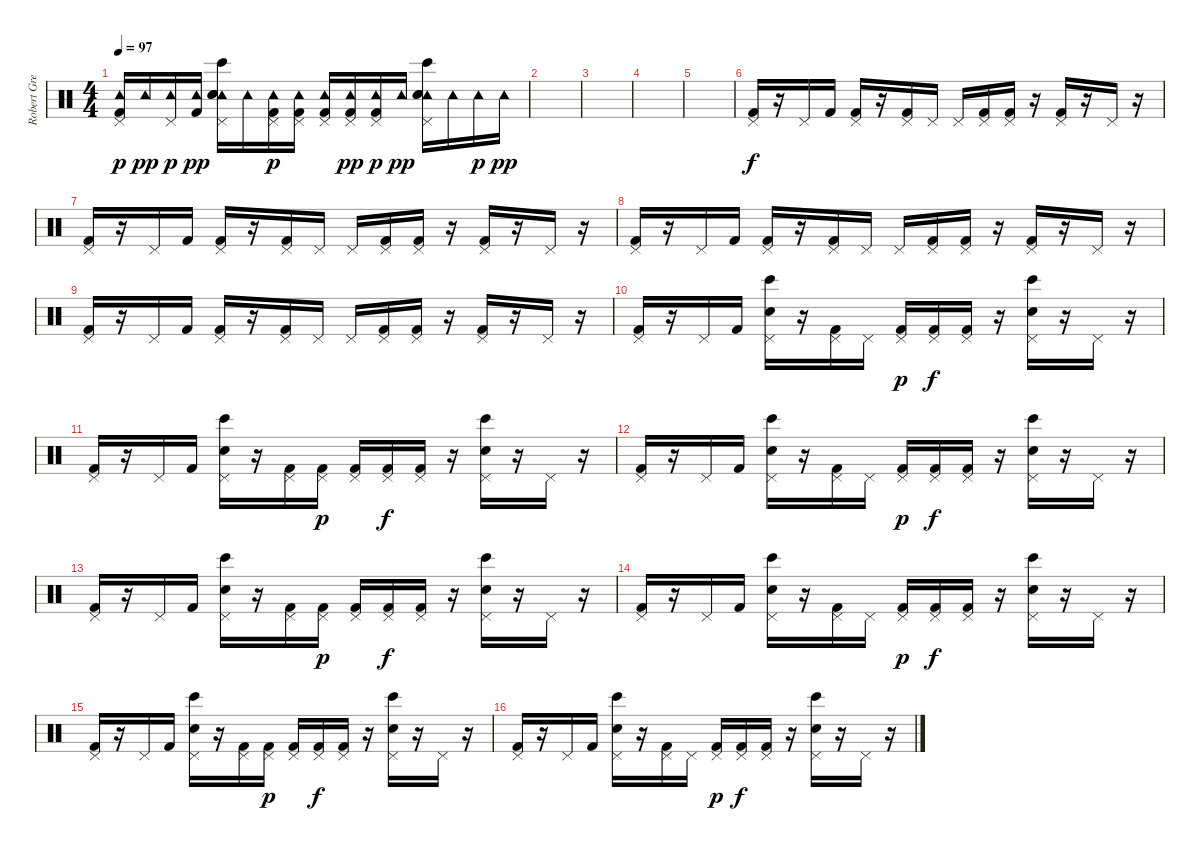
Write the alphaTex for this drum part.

\track ("Robert Gregory Bourdan/'Groop' sound" "Robert Gre") {instrument percussion}
\staff {score}
\articulation defaults
\ts (4 4)
\tempo 97
\clef neutral
\ks c
("Pedal Hi-Hat (hit)" "Tambourine (hit)" "Kick (hit) 2").16{dy p} "Tambourine (hit)".16{dy pp} ("Pedal Hi-Hat (hit)" "Tambourine (hit)").16{dy p} ("Tambourine (hit)" "Kick (hit) 2").16{dy pp} ("Pedal Hi-Hat (hit)" "Tambourine (hit)" "Electric Snare (hit)" "Snare (hit) 2" "Bongo High (hit)").16 "Tambourine (hit)".16 ("Pedal Hi-Hat (hit)" "Tambourine (hit)" "Kick (hit) 2").16{dy p} ("Pedal Hi-Hat (hit)" "Tambourine (hit)" "Kick (hit) 2").16 ("Pedal Hi-Hat (hit)" "Tambourine (hit)" "Kick (hit) 2").16 ("Pedal Hi-Hat (hit)" "Tambourine (hit)" "Kick (hit) 2").16{dy pp} ("Pedal Hi-Hat (hit)" "Tambourine (hit)" "Kick (hit) 2").16{dy p} "Tambourine (hit)".16{dy pp} ("Pedal Hi-Hat (hit)" "Tambourine (hit)" "Electric Snare (hit)" "Snare (hit) 2" "Bongo High (hit)").16 "Tambourine (hit)".16 "Tambourine (hit)".16{dy p} "Tambourine (hit)".16{dy pp} |
|
|
|
|
("Pedal Hi-Hat (hit)" "Kick (hit) 2").16{dy f} r.16 "Pedal Hi-Hat (hit)".16 "Kick (hit) 2".16 ("Pedal Hi-Hat (hit)" "Kick (hit) 2").16 r.16 ("Pedal Hi-Hat (hit)" "Kick (hit) 2").16 "Pedal Hi-Hat (hit)".16 "Pedal Hi-Hat (hit)".16 ("Pedal Hi-Hat (hit)" "Kick (hit) 2").16 ("Pedal Hi-Hat (hit)" "Kick (hit) 2").16 r.16 ("Pedal Hi-Hat (hit)" "Kick (hit) 2").16 r.16 "Pedal Hi-Hat (hit)".16 r.16 |
("Pedal Hi-Hat (hit)" "Kick (hit) 2").16 r.16 "Pedal Hi-Hat (hit)".16 "Kick (hit) 2".16 ("Pedal Hi-Hat (hit)" "Kick (hit) 2").16 r.16 ("Pedal Hi-Hat (hit)" "Kick (hit) 2").16 "Pedal Hi-Hat (hit)".16 "Pedal Hi-Hat (hit)".16 ("Pedal Hi-Hat (hit)" "Kick (hit) 2").16 ("Pedal Hi-Hat (hit)" "Kick (hit) 2").16 r.16 ("Pedal Hi-Hat (hit)" "Kick (hit) 2").16 r.16 "Pedal Hi-Hat (hit)".16 r.16 |
("Pedal Hi-Hat (hit)" "Kick (hit) 2").16 r.16 "Pedal Hi-Hat (hit)".16 "Kick (hit) 2".16 ("Pedal Hi-Hat (hit)" "Kick (hit) 2").16 r.16 ("Pedal Hi-Hat (hit)" "Kick (hit) 2").16 "Pedal Hi-Hat (hit)".16 "Pedal Hi-Hat (hit)".16 ("Pedal Hi-Hat (hit)" "Kick (hit) 2").16 ("Pedal Hi-Hat (hit)" "Kick (hit) 2").16 r.16 ("Pedal Hi-Hat (hit)" "Kick (hit) 2").16 r.16 "Pedal Hi-Hat (hit)".16 r.16 |
("Pedal Hi-Hat (hit)" "Kick (hit) 2").16 r.16 "Pedal Hi-Hat (hit)".16 "Kick (hit) 2".16 ("Pedal Hi-Hat (hit)" "Kick (hit) 2").16 r.16 ("Pedal Hi-Hat (hit)" "Kick (hit) 2").16 "Pedal Hi-Hat (hit)".16 "Pedal Hi-Hat (hit)".16 ("Pedal Hi-Hat (hit)" "Kick (hit) 2").16 ("Pedal Hi-Hat (hit)" "Kick (hit) 2").16 r.16 ("Pedal Hi-Hat (hit)" "Kick (hit) 2").16 r.16 "Pedal Hi-Hat (hit)".16 r.16 |
("Pedal Hi-Hat (hit)" "Kick (hit) 2").16 r.16 "Pedal Hi-Hat (hit)".16 "Kick (hit) 2".16 ("Pedal Hi-Hat (hit)" "Electric Snare (hit)" "Bongo High (hit)").16 r.16 ("Pedal Hi-Hat (hit)" "Kick (hit) 2").16 "Pedal Hi-Hat (hit)".16 ("Pedal Hi-Hat (hit)" "Kick (hit) 2").16{dy p} ("Pedal Hi-Hat (hit)" "Kick (hit) 2").16{dy f} ("Pedal Hi-Hat (hit)" "Kick (hit) 2").16 r.16 ("Pedal Hi-Hat (hit)" "Electric Snare (hit)" "Bongo High (hit)").16 r.16 "Pedal Hi-Hat (hit)".16 r.16 |
("Pedal Hi-Hat (hit)" "Kick (hit) 2").16 r.16 "Pedal Hi-Hat (hit)".16 "Kick (hit) 2".16 ("Pedal Hi-Hat (hit)" "Electric Snare (hit)" "Bongo High (hit)").16 r.16 ("Pedal Hi-Hat (hit)" "Kick (hit) 2").16 ("Pedal Hi-Hat (hit)" "Kick (hit) 2").16{dy p} ("Pedal Hi-Hat (hit)" "Kick (hit) 2").16 ("Pedal Hi-Hat (hit)" "Kick (hit) 2").16{dy f} ("Pedal Hi-Hat (hit)" "Kick (hit) 2").16 r.16 ("Pedal Hi-Hat (hit)" "Electric Snare (hit)" "Bongo High (hit)").16 r.16 "Pedal Hi-Hat (hit)".16 r.16 |
("Pedal Hi-Hat (hit)" "Kick (hit) 2").16 r.16 "Pedal Hi-Hat (hit)".16 "Kick (hit) 2".16 ("Pedal Hi-Hat (hit)" "Electric Snare (hit)" "Bongo High (hit)").16 r.16 ("Pedal Hi-Hat (hit)" "Kick (hit) 2").16 "Pedal Hi-Hat (hit)".16 ("Pedal Hi-Hat (hit)" "Kick (hit) 2").16{dy p} ("Pedal Hi-Hat (hit)" "Kick (hit) 2").16{dy f} ("Pedal Hi-Hat (hit)" "Kick (hit) 2").16 r.16 ("Pedal Hi-Hat (hit)" "Electric Snare (hit)" "Bongo High (hit)").16 r.16 "Pedal Hi-Hat (hit)".16 r.16 |
("Pedal Hi-Hat (hit)" "Kick (hit) 2").16 r.16 "Pedal Hi-Hat (hit)".16 "Kick (hit) 2".16 ("Pedal Hi-Hat (hit)" "Electric Snare (hit)" "Bongo High (hit)").16 r.16 ("Pedal Hi-Hat (hit)" "Kick (hit) 2").16 ("Pedal Hi-Hat (hit)" "Kick (hit) 2").16{dy p} ("Pedal Hi-Hat (hit)" "Kick (hit) 2").16 ("Pedal Hi-Hat (hit)" "Kick (hit) 2").16{dy f} ("Pedal Hi-Hat (hit)" "Kick (hit) 2").16 r.16 ("Pedal Hi-Hat (hit)" "Electric Snare (hit)" "Bongo High (hit)").16 r.16 "Pedal Hi-Hat (hit)".16 r.16 |
("Pedal Hi-Hat (hit)" "Kick (hit) 2").16 r.16 "Pedal Hi-Hat (hit)".16 "Kick (hit) 2".16 ("Pedal Hi-Hat (hit)" "Electric Snare (hit)" "Bongo High (hit)").16 r.16 ("Pedal Hi-Hat (hit)" "Kick (hit) 2").16 "Pedal Hi-Hat (hit)".16 ("Pedal Hi-Hat (hit)" "Kick (hit) 2").16{dy p} ("Pedal Hi-Hat (hit)" "Kick (hit) 2").16{dy f} ("Pedal Hi-Hat (hit)" "Kick (hit) 2").16 r.16 ("Pedal Hi-Hat (hit)" "Electric Snare (hit)" "Bongo High (hit)").16 r.16 "Pedal Hi-Hat (hit)".16 r.16 |
("Pedal Hi-Hat (hit)" "Kick (hit) 2").16 r.16 "Pedal Hi-Hat (hit)".16 "Kick (hit) 2".16 ("Pedal Hi-Hat (hit)" "Electric Snare (hit)" "Bongo High (hit)").16 r.16 ("Pedal Hi-Hat (hit)" "Kick (hit) 2").16 ("Pedal Hi-Hat (hit)" "Kick (hit) 2").16{dy p} ("Pedal Hi-Hat (hit)" "Kick (hit) 2").16 ("Pedal Hi-Hat (hit)" "Kick (hit) 2").16{dy f} ("Pedal Hi-Hat (hit)" "Kick (hit) 2").16 r.16 ("Pedal Hi-Hat (hit)" "Electric Snare (hit)" "Bongo High (hit)").16 r.16 "Pedal Hi-Hat (hit)".16 r.16 |
("Pedal Hi-Hat (hit)" "Kick (hit) 2").16 r.16 "Pedal Hi-Hat (hit)".16 "Kick (hit) 2".16 ("Pedal Hi-Hat (hit)" "Electric Snare (hit)" "Bongo High (hit)").16 r.16 ("Pedal Hi-Hat (hit)" "Kick (hit) 2").16 "Pedal Hi-Hat (hit)".16 ("Pedal Hi-Hat (hit)" "Kick (hit) 2").16{dy p} ("Pedal Hi-Hat (hit)" "Kick (hit) 2").16{dy f} ("Pedal Hi-Hat (hit)" "Kick (hit) 2").16 r.16 ("Pedal Hi-Hat (hit)" "Electric Snare (hit)" "Bongo High (hit)").16 r.16 "Pedal Hi-Hat (hit)".16 r.16
